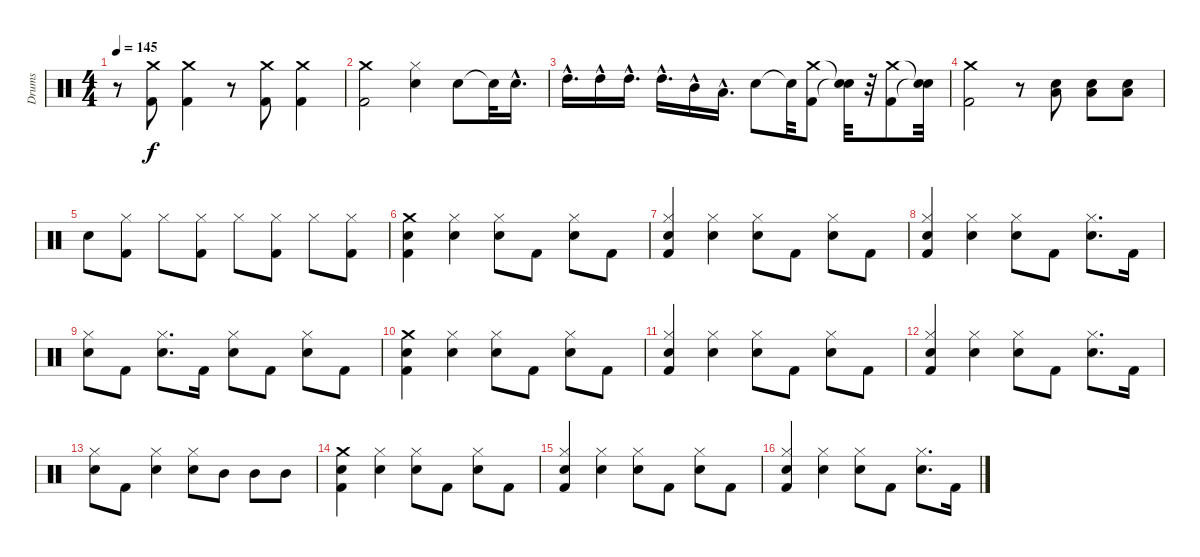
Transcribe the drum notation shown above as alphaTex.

\track ("Drums" "Drums") {instrument percussion}
\staff {score}
\articulation defaults
\ts (4 4)
\tempo 145
\clef neutral
\ks c
r.8{dy f} ("Crash medium (hit)" "Kick (hit) 2").8 ("Crash medium (hit)" "Kick (hit) 2").4 r.8 ("Crash medium (hit)" "Kick (hit) 2").8 ("Crash medium (hit)" "Kick (hit) 2").4 |
("Kick (hit) 2" "Crash medium (hit)").2 ("Hi-Hat (closed)" "Snare (hit) 2").4 "Snare (hit) 2".8 "Snare (hit)"{t}.32 "Snare (hit) 2"{hac}.16{d} |
"High Tom (hit)"{hac}.16{d} "High Tom (hit)"{hac}.16 "High Tom (hit)"{hac}.16{d} "High Tom (hit)"{hac}.16{d} "Mid Tom (hit)"{hac}.16 "Low Tom (hit)"{hac}.16{d} "Snare (hit) 2".8 "Snare (hit)"{t}.32 ("Crash medium (hit)" "Kick (hit) 2").8 ("Snare (hit)"{t} "Snare (hit)"{t}).32 r.32 ("Crash medium (hit)" "Kick (hit) 2").8 ("Snare (hit)"{t} "Snare (hit)"{t}).32 |
("Crash medium (hit)" "Kick (hit) 2").2 r.8 ("Snare (hit) 2" "Low Tom (hit)").8 ("Snare (hit) 2" "Low Tom (hit)").8 ("Snare (hit) 2" "Low Tom (hit)").8 |
"Snare (hit) 2".8 ("Kick (hit) 2" "Hi-Hat (closed)").8 "Hi-Hat (closed)".8 ("Kick (hit) 2" "Hi-Hat (closed)").8 "Hi-Hat (closed)".8 ("Kick (hit) 2" "Hi-Hat (closed)").8 "Hi-Hat (closed)".8 ("Kick (hit) 2" "Hi-Hat (closed)").8 |
("Crash medium (hit)" "Snare (hit) 2" "Kick (hit) 2").4 ("Hi-Hat (closed)" "Snare (hit) 2").4 ("Hi-Hat (closed)" "Snare (hit) 2").8 "Kick (hit) 2".8 ("Hi-Hat (closed)" "Snare (hit) 2").8 "Kick (hit) 2".8 |
("Hi-Hat (closed)" "Snare (hit) 2" "Kick (hit) 2").4 ("Hi-Hat (closed)" "Snare (hit) 2").4 ("Hi-Hat (closed)" "Snare (hit) 2").8 "Kick (hit) 2".8 ("Hi-Hat (closed)" "Snare (hit) 2").8 "Kick (hit) 2".8 |
("Hi-Hat (closed)" "Snare (hit) 2" "Kick (hit) 2").4 ("Hi-Hat (closed)" "Snare (hit) 2").4 ("Hi-Hat (closed)" "Snare (hit) 2").8 "Kick (hit) 2".8 ("Hi-Hat (closed)" "Snare (hit) 2").8{d} "Kick (hit) 2".16 |
("Snare (hit) 2" "Hi-Hat (closed)").8 "Kick (hit) 2".8 ("Snare (hit) 2" "Hi-Hat (closed)").8{d} "Kick (hit) 2".16 ("Snare (hit) 2" "Hi-Hat (closed)").8 "Kick (hit) 2".8 ("Snare (hit) 2" "Hi-Hat (closed)").8 "Kick (hit) 2".8 |
("Crash medium (hit)" "Snare (hit) 2" "Kick (hit) 2").4 ("Hi-Hat (closed)" "Snare (hit) 2").4 ("Hi-Hat (closed)" "Snare (hit) 2").8 "Kick (hit) 2".8 ("Hi-Hat (closed)" "Snare (hit) 2").8 "Kick (hit) 2".8 |
("Hi-Hat (closed)" "Snare (hit) 2" "Kick (hit) 2").4 ("Hi-Hat (closed)" "Snare (hit) 2").4 ("Hi-Hat (closed)" "Snare (hit) 2").8 "Kick (hit) 2".8 ("Hi-Hat (closed)" "Snare (hit) 2").8 "Kick (hit) 2".8 |
("Hi-Hat (closed)" "Snare (hit) 2" "Kick (hit) 2").4 ("Hi-Hat (closed)" "Snare (hit) 2").4 ("Hi-Hat (closed)" "Snare (hit) 2").8 "Kick (hit) 2".8 ("Hi-Hat (closed)" "Snare (hit) 2").8{d} "Kick (hit) 2".16 |
("Hi-Hat (closed)" "Snare (hit) 2").8 "Kick (hit) 2".8 ("Hi-Hat (closed)" "Snare (hit) 2").4 ("Hi-Hat (closed)" "Snare (hit) 2").8 "Mid Tom (hit)".8 "Mid Tom (hit)".8 "Mid Tom (hit)".8 |
("Kick (hit) 2" "Crash medium (hit)" "Snare (hit) 2").4 ("Hi-Hat (closed)" "Snare (hit) 2").4 ("Hi-Hat (closed)" "Snare (hit) 2").8 "Kick (hit) 2".8 ("Hi-Hat (closed)" "Snare (hit) 2").8 "Kick (hit) 2".8 |
("Kick (hit) 2" "Hi-Hat (closed)" "Snare (hit) 2").4 ("Hi-Hat (closed)" "Snare (hit) 2").4 ("Hi-Hat (closed)" "Snare (hit) 2").8 "Kick (hit) 2".8 ("Hi-Hat (closed)" "Snare (hit) 2").8 "Kick (hit) 2".8 |
("Hi-Hat (closed)" "Snare (hit) 2" "Kick (hit) 2").4 ("Hi-Hat (closed)" "Snare (hit) 2").4 ("Hi-Hat (closed)" "Snare (hit) 2").8 "Kick (hit) 2".8 ("Hi-Hat (closed)" "Snare (hit) 2").8{d} "Kick (hit) 2".16
